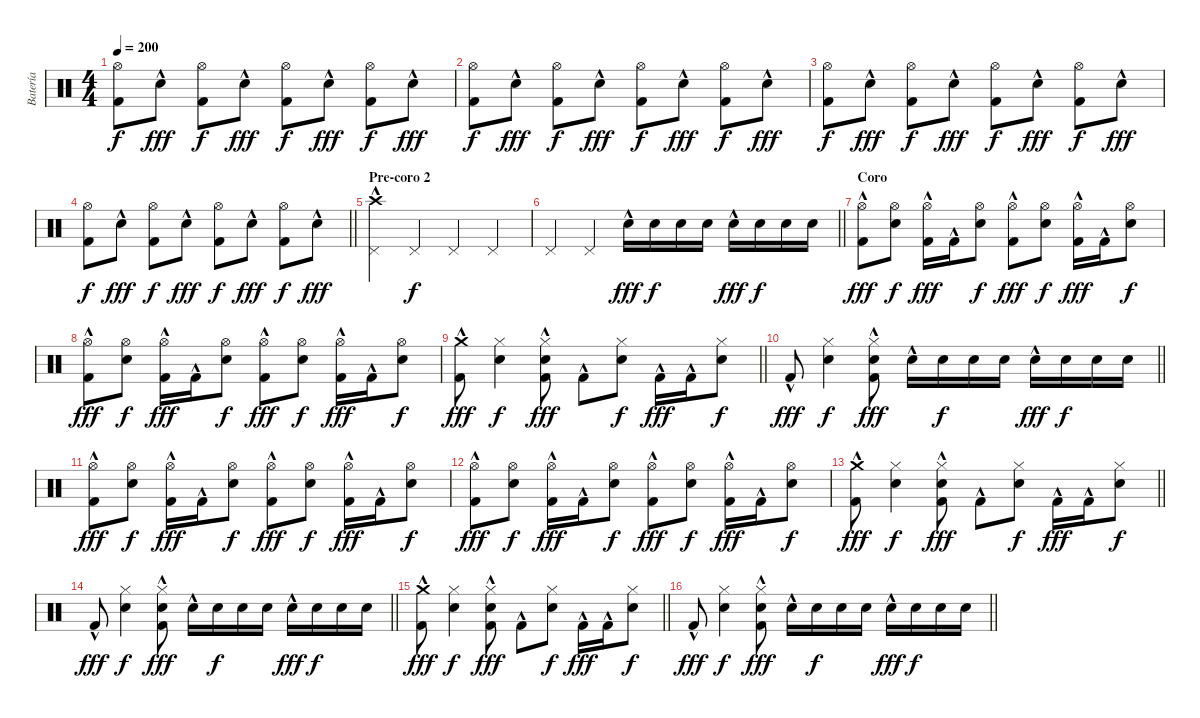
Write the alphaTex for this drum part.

\track ("Batería" "Batería") {instrument percussion bank 6}
\staff {score}
\articulation defaults
\ts (4 4)
\tempo 200
\clef neutral
\ks c
("Hi-Hat (open)" "Kick (hit) 2").8{dy f} "Snare (hit) 2"{hac}.8{dy fff} ("Hi-Hat (open)" "Kick (hit) 2").8{dy f} "Snare (hit) 2"{hac}.8{dy fff} ("Hi-Hat (open)" "Kick (hit) 2").8{dy f} "Snare (hit) 2"{hac}.8{dy fff} ("Hi-Hat (open)" "Kick (hit) 2").8{dy f} "Snare (hit) 2"{hac}.8{dy fff} |
("Hi-Hat (open)" "Kick (hit) 2").8{dy f} "Snare (hit) 2"{hac}.8{dy fff} ("Hi-Hat (open)" "Kick (hit) 2").8{dy f} "Snare (hit) 2"{hac}.8{dy fff} ("Hi-Hat (open)" "Kick (hit) 2").8{dy f} "Snare (hit) 2"{hac}.8{dy fff} ("Hi-Hat (open)" "Kick (hit) 2").8{dy f} "Snare (hit) 2"{hac}.8{dy fff} |
("Hi-Hat (open)" "Kick (hit) 2").8{dy f} "Snare (hit) 2"{hac}.8{dy fff} ("Hi-Hat (open)" "Kick (hit) 2").8{dy f} "Snare (hit) 2"{hac}.8{dy fff} ("Hi-Hat (open)" "Kick (hit) 2").8{dy f} "Snare (hit) 2"{hac}.8{dy fff} ("Hi-Hat (open)" "Kick (hit) 2").8{dy f} "Snare (hit) 2"{hac}.8{dy fff} |
\barLineRight lightlight
("Hi-Hat (open)" "Kick (hit) 2").8{dy f} "Snare (hit) 2"{hac}.8{dy fff} ("Hi-Hat (open)" "Kick (hit) 2").8{dy f} "Snare (hit) 2"{hac}.8{dy fff} ("Hi-Hat (open)" "Kick (hit) 2").8{dy f} "Snare (hit) 2"{hac}.8{dy fff} ("Hi-Hat (open)" "Kick (hit) 2").8{dy f} "Snare (hit) 2"{hac}.8{dy fff} |
\section ("" "Pre-coro 2")
("Crash high (hit)"{hac} "Pedal Hi-Hat (hit)").4 "Pedal Hi-Hat (hit)".4{dy f} "Pedal Hi-Hat (hit)".4 "Pedal Hi-Hat (hit)".4 |
\barLineRight lightlight "Pedal Hi-Hat (hit)".4 "Pedal Hi-Hat (hit)".4 "Snare (hit) 2"{hac}.16{dy fff} "Snare (hit) 2".16{dy f} "Snare (hit) 2".16 "Snare (hit) 2".16 "Snare (hit) 2"{hac}.16{dy fff} "Snare (hit) 2".16{dy f} "Snare (hit) 2".16 "Snare (hit) 2".16
|
\section ("" "Coro")
("Hi-Hat (open)" "Kick (hit) 2"{hac}).8{dy fff} ("Snare (hit) 2" "Hi-Hat (open)").8{dy f} ("Hi-Hat (open)" "Kick (hit) 2"{hac}).16{dy fff} "Kick (hit) 2"{hac}.16 ("Snare (hit) 2" "Hi-Hat (open)").8{dy f} ("Hi-Hat (open)" "Kick (hit) 2"{hac}).8{dy fff} ("Snare (hit) 2" "Hi-Hat (open)").8{dy f} ("Hi-Hat (open)" "Kick (hit) 2"{hac}).16{dy fff} "Kick (hit) 2"{hac}.16 ("Snare (hit) 2" "Hi-Hat (open)").8{dy f} |
("Hi-Hat (open)" "Kick (hit) 2"{hac}).8{dy fff} ("Snare (hit) 2" "Hi-Hat (open)").8{dy f} ("Hi-Hat (open)" "Kick (hit) 2"{hac}).16{dy fff} "Kick (hit) 2"{hac}.16 ("Snare (hit) 2" "Hi-Hat (open)").8{dy f} ("Hi-Hat (open)" "Kick (hit) 2"{hac}).8{dy fff} ("Snare (hit) 2" "Hi-Hat (open)").8{dy f} ("Hi-Hat (open)" "Kick (hit) 2"{hac}).16{dy fff} "Kick (hit) 2"{hac}.16 ("Snare (hit) 2" "Hi-Hat (open)").8{dy f} |
\barLineRight lightlight
("Crash medium (hit)" "Kick (hit) 2"{hac}).8{dy fff} ("Snare (hit) 2" "Hi-Hat (closed)").4{dy f} ("Snare (hit) 2" "Hi-Hat (closed)" "Kick (hit) 2"{hac}).8{dy fff} "Kick (hit) 2"{hac}.8 ("Snare (hit) 2" "Hi-Hat (closed)").8{dy f} "Kick (hit) 2"{hac}.16{dy fff} "Kick (hit) 2"{hac}.16 ("Snare (hit) 2" "Hi-Hat (closed)").8{dy f} |
\barLineRight lightlight "Kick (hit) 2"{hac}.8{dy fff}
("Snare (hit) 2" "Hi-Hat (closed)").4{dy f} ("Snare (hit) 2" "Hi-Hat (closed)" "Kick (hit) 2"{hac}).8{dy fff} "Snare (hit) 2"{hac}.16 "Snare (hit) 2".16{dy f} "Snare (hit) 2".16 "Snare (hit) 2".16 "Snare (hit) 2"{hac}.16{dy fff} "Snare (hit) 2".16{dy f} "Snare (hit) 2".16 "Snare (hit) 2".16 |
("Hi-Hat (open)" "Kick (hit) 2"{hac}).8{dy fff} ("Snare (hit) 2" "Hi-Hat (open)").8{dy f} ("Hi-Hat (open)" "Kick (hit) 2"{hac}).16{dy fff} "Kick (hit) 2"{hac}.16 ("Snare (hit) 2" "Hi-Hat (open)").8{dy f} ("Hi-Hat (open)" "Kick (hit) 2"{hac}).8{dy fff} ("Snare (hit) 2" "Hi-Hat (open)").8{dy f} ("Hi-Hat (open)" "Kick (hit) 2"{hac}).16{dy fff} "Kick (hit) 2"{hac}.16 ("Snare (hit) 2" "Hi-Hat (open)").8{dy f} |
("Hi-Hat (open)" "Kick (hit) 2"{hac}).8{dy fff} ("Snare (hit) 2" "Hi-Hat (open)").8{dy f} ("Hi-Hat (open)" "Kick (hit) 2"{hac}).16{dy fff} "Kick (hit) 2"{hac}.16 ("Snare (hit) 2" "Hi-Hat (open)").8{dy f} ("Hi-Hat (open)" "Kick (hit) 2"{hac}).8{dy fff} ("Snare (hit) 2" "Hi-Hat (open)").8{dy f} ("Hi-Hat (open)" "Kick (hit) 2"{hac}).16{dy fff} "Kick (hit) 2"{hac}.16 ("Snare (hit) 2" "Hi-Hat (open)").8{dy f} |
\barLineRight lightlight
("Crash medium (hit)" "Kick (hit) 2"{hac}).8{dy fff} ("Snare (hit) 2" "Hi-Hat (closed)").4{dy f} ("Snare (hit) 2" "Hi-Hat (closed)" "Kick (hit) 2"{hac}).8{dy fff} "Kick (hit) 2"{hac}.8 ("Snare (hit) 2" "Hi-Hat (closed)").8{dy f} "Kick (hit) 2"{hac}.16{dy fff} "Kick (hit) 2"{hac}.16 ("Snare (hit) 2" "Hi-Hat (closed)").8{dy f} |
\barLineRight lightlight "Kick (hit) 2"{hac}.8{dy fff}
("Snare (hit) 2" "Hi-Hat (closed)").4{dy f} ("Snare (hit) 2" "Hi-Hat (closed)" "Kick (hit) 2"{hac}).8{dy fff} "Snare (hit) 2"{hac}.16 "Snare (hit) 2".16{dy f} "Snare (hit) 2".16 "Snare (hit) 2".16 "Snare (hit) 2"{hac}.16{dy fff} "Snare (hit) 2".16{dy f} "Snare (hit) 2".16 "Snare (hit) 2".16 |
\barLineRight lightlight
("Crash medium (hit)" "Kick (hit) 2"{hac}).8{dy fff} ("Snare (hit) 2" "Hi-Hat (closed)").4{dy f} ("Snare (hit) 2" "Hi-Hat (closed)" "Kick (hit) 2"{hac}).8{dy fff} "Kick (hit) 2"{hac}.8 ("Snare (hit) 2" "Hi-Hat (closed)").8{dy f} "Kick (hit) 2"{hac}.16{dy fff} "Kick (hit) 2"{hac}.16 ("Snare (hit) 2" "Hi-Hat (closed)").8{dy f} |
\barLineRight lightlight "Kick (hit) 2"{hac}.8{dy fff}
("Snare (hit) 2" "Hi-Hat (closed)").4{dy f} ("Snare (hit) 2" "Hi-Hat (closed)" "Kick (hit) 2"{hac}).8{dy fff} "Snare (hit) 2"{hac}.16 "Snare (hit) 2".16{dy f} "Snare (hit) 2".16 "Snare (hit) 2".16 "Snare (hit) 2"{hac}.16{dy fff} "Snare (hit) 2".16{dy f} "Snare (hit) 2".16 "Snare (hit) 2".16
